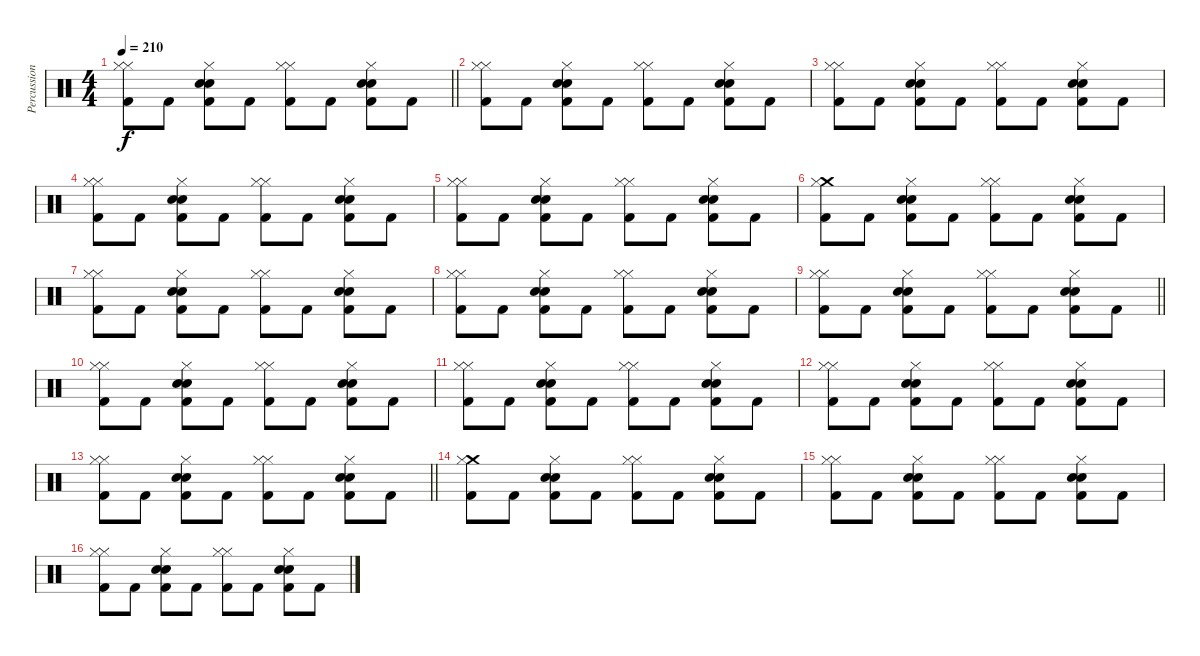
\track ("Percussion" "Percussion") {instrument percussion}
\staff {score}
\articulation defaults
\ts (4 4)
\tempo 210
\clef neutral
\barLineRight lightlight
\ks c
("Hi-Hat (closed)" "Hi-Hat (closed)" "Kick (hit) 2").8{dy f} "Kick (hit) 2".8 ("Hi-Hat (closed)" "Snare (hit) 2" "Electric Snare (hit)" "Kick (hit) 2").8 "Kick (hit) 2".8 ("Hi-Hat (closed)" "Hi-Hat (closed)" "Kick (hit) 2").8 "Kick (hit) 2".8 ("Hi-Hat (closed)" "Snare (hit) 2" "Electric Snare (hit)" "Kick (hit) 2").8 "Kick (hit) 2".8 |
("Hi-Hat (closed)" "Hi-Hat (closed)" "Kick (hit) 2").8 "Kick (hit) 2".8 ("Hi-Hat (closed)" "Snare (hit) 2" "Electric Snare (hit)" "Kick (hit) 2").8 "Kick (hit) 2".8 ("Hi-Hat (closed)" "Hi-Hat (closed)" "Kick (hit) 2").8 "Kick (hit) 2".8 ("Hi-Hat (closed)" "Snare (hit) 2" "Electric Snare (hit)" "Kick (hit) 2").8 "Kick (hit) 2".8 |
("Hi-Hat (closed)" "Hi-Hat (closed)" "Kick (hit) 2").8 "Kick (hit) 2".8 ("Hi-Hat (closed)" "Snare (hit) 2" "Electric Snare (hit)" "Kick (hit) 2").8 "Kick (hit) 2".8 ("Hi-Hat (closed)" "Hi-Hat (closed)" "Kick (hit) 2").8 "Kick (hit) 2".8 ("Hi-Hat (closed)" "Snare (hit) 2" "Electric Snare (hit)" "Kick (hit) 2").8 "Kick (hit) 2".8 |
("Hi-Hat (closed)" "Hi-Hat (closed)" "Kick (hit) 2").8 "Kick (hit) 2".8 ("Hi-Hat (closed)" "Snare (hit) 2" "Electric Snare (hit)" "Kick (hit) 2").8 "Kick (hit) 2".8 ("Hi-Hat (closed)" "Hi-Hat (closed)" "Kick (hit) 2").8 "Kick (hit) 2".8 ("Hi-Hat (closed)" "Snare (hit) 2" "Electric Snare (hit)" "Kick (hit) 2").8 "Kick (hit) 2".8 |
("Hi-Hat (closed)" "Hi-Hat (closed)" "Kick (hit) 2").8 "Kick (hit) 2".8 ("Hi-Hat (closed)" "Snare (hit) 2" "Electric Snare (hit)" "Kick (hit) 2").8 "Kick (hit) 2".8 ("Hi-Hat (closed)" "Hi-Hat (closed)" "Kick (hit) 2").8 "Kick (hit) 2".8 ("Hi-Hat (closed)" "Snare (hit) 2" "Electric Snare (hit)" "Kick (hit) 2").8 "Kick (hit) 2".8 |
("Crash medium (hit)" "Hi-Hat (closed)" "Kick (hit) 2").8 "Kick (hit) 2".8 ("Hi-Hat (closed)" "Snare (hit) 2" "Electric Snare (hit)" "Kick (hit) 2").8 "Kick (hit) 2".8 ("Hi-Hat (closed)" "Hi-Hat (closed)" "Kick (hit) 2").8 "Kick (hit) 2".8 ("Hi-Hat (closed)" "Snare (hit) 2" "Electric Snare (hit)" "Kick (hit) 2").8 "Kick (hit) 2".8 |
("Hi-Hat (closed)" "Hi-Hat (closed)" "Kick (hit) 2").8 "Kick (hit) 2".8 ("Hi-Hat (closed)" "Snare (hit) 2" "Electric Snare (hit)" "Kick (hit) 2").8 "Kick (hit) 2".8 ("Hi-Hat (closed)" "Hi-Hat (closed)" "Kick (hit) 2").8 "Kick (hit) 2".8 ("Hi-Hat (closed)" "Snare (hit) 2" "Electric Snare (hit)" "Kick (hit) 2").8 "Kick (hit) 2".8 |
("Hi-Hat (closed)" "Hi-Hat (closed)" "Kick (hit) 2").8 "Kick (hit) 2".8 ("Hi-Hat (closed)" "Snare (hit) 2" "Electric Snare (hit)" "Kick (hit) 2").8 "Kick (hit) 2".8 ("Hi-Hat (closed)" "Hi-Hat (closed)" "Kick (hit) 2").8 "Kick (hit) 2".8 ("Hi-Hat (closed)" "Snare (hit) 2" "Electric Snare (hit)" "Kick (hit) 2").8 "Kick (hit) 2".8 |
\barLineRight lightlight
("Hi-Hat (closed)" "Hi-Hat (closed)" "Kick (hit) 2").8 "Kick (hit) 2".8 ("Hi-Hat (closed)" "Snare (hit) 2" "Electric Snare (hit)" "Kick (hit) 2").8 "Kick (hit) 2".8 ("Hi-Hat (closed)" "Hi-Hat (closed)" "Kick (hit) 2").8 "Kick (hit) 2".8 ("Hi-Hat (closed)" "Snare (hit) 2" "Electric Snare (hit)" "Kick (hit) 2").8 "Kick (hit) 2".8 |
("Hi-Hat (closed)" "Hi-Hat (closed)" "Kick (hit) 2").8 "Kick (hit) 2".8 ("Hi-Hat (closed)" "Snare (hit) 2" "Electric Snare (hit)" "Kick (hit) 2").8 "Kick (hit) 2".8 ("Hi-Hat (closed)" "Hi-Hat (closed)" "Kick (hit) 2").8 "Kick (hit) 2".8 ("Hi-Hat (closed)" "Snare (hit) 2" "Electric Snare (hit)" "Kick (hit) 2").8 "Kick (hit) 2".8 |
("Hi-Hat (closed)" "Hi-Hat (closed)" "Kick (hit) 2").8 "Kick (hit) 2".8 ("Hi-Hat (closed)" "Snare (hit) 2" "Electric Snare (hit)" "Kick (hit) 2").8 "Kick (hit) 2".8 ("Hi-Hat (closed)" "Hi-Hat (closed)" "Kick (hit) 2").8 "Kick (hit) 2".8 ("Hi-Hat (closed)" "Snare (hit) 2" "Electric Snare (hit)" "Kick (hit) 2").8 "Kick (hit) 2".8 |
("Hi-Hat (closed)" "Hi-Hat (closed)" "Kick (hit) 2").8 "Kick (hit) 2".8 ("Hi-Hat (closed)" "Snare (hit) 2" "Electric Snare (hit)" "Kick (hit) 2").8 "Kick (hit) 2".8 ("Hi-Hat (closed)" "Hi-Hat (closed)" "Kick (hit) 2").8 "Kick (hit) 2".8 ("Hi-Hat (closed)" "Snare (hit) 2" "Electric Snare (hit)" "Kick (hit) 2").8 "Kick (hit) 2".8 |
\barLineRight lightlight
("Hi-Hat (closed)" "Hi-Hat (closed)" "Kick (hit) 2").8 "Kick (hit) 2".8 ("Hi-Hat (closed)" "Snare (hit) 2" "Electric Snare (hit)" "Kick (hit) 2").8 "Kick (hit) 2".8 ("Hi-Hat (closed)" "Hi-Hat (closed)" "Kick (hit) 2").8 "Kick (hit) 2".8 ("Hi-Hat (closed)" "Snare (hit) 2" "Electric Snare (hit)" "Kick (hit) 2").8 "Kick (hit) 2".8 |
\section ("" "")
("Crash medium (hit)" "Hi-Hat (closed)" "Kick (hit) 2").8 "Kick (hit) 2".8 ("Hi-Hat (closed)" "Snare (hit) 2" "Electric Snare (hit)" "Kick (hit) 2").8 "Kick (hit) 2".8 ("Hi-Hat (closed)" "Hi-Hat (closed)" "Kick (hit) 2").8 "Kick (hit) 2".8 ("Hi-Hat (closed)" "Snare (hit) 2" "Electric Snare (hit)" "Kick (hit) 2").8 "Kick (hit) 2".8 |
("Hi-Hat (closed)" "Hi-Hat (closed)" "Kick (hit) 2").8 "Kick (hit) 2".8 ("Hi-Hat (closed)" "Snare (hit) 2" "Electric Snare (hit)" "Kick (hit) 2").8 "Kick (hit) 2".8 ("Hi-Hat (closed)" "Hi-Hat (closed)" "Kick (hit) 2").8 "Kick (hit) 2".8 ("Hi-Hat (closed)" "Snare (hit) 2" "Electric Snare (hit)" "Kick (hit) 2").8 "Kick (hit) 2".8 |
("Hi-Hat (closed)" "Hi-Hat (closed)" "Kick (hit) 2").8 "Kick (hit) 2".8 ("Hi-Hat (closed)" "Snare (hit) 2" "Electric Snare (hit)" "Kick (hit) 2").8 "Kick (hit) 2".8 ("Hi-Hat (closed)" "Hi-Hat (closed)" "Kick (hit) 2").8 "Kick (hit) 2".8 ("Hi-Hat (closed)" "Snare (hit) 2" "Electric Snare (hit)" "Kick (hit) 2").8 "Kick (hit) 2".8
